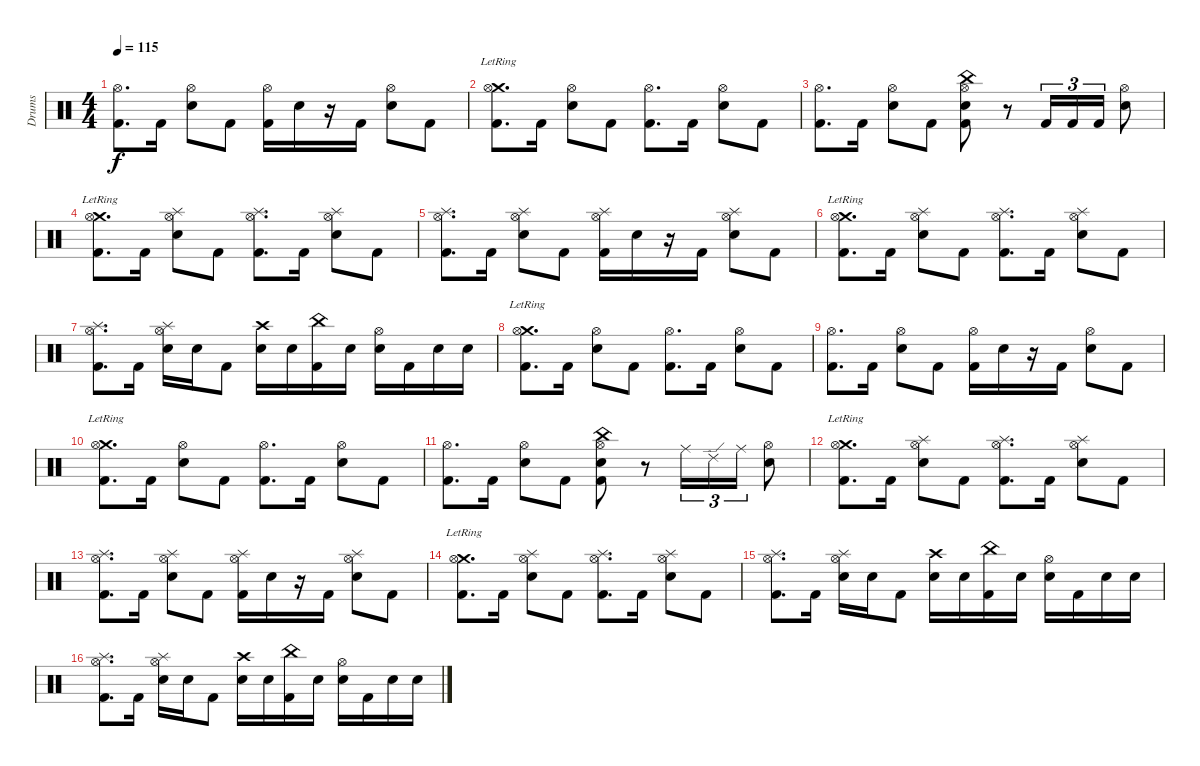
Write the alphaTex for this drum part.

\track ("Drums" "Drums") {instrument percussion}
\staff {score}
\articulation defaults
\ts (4 4)
\tempo 115
\clef neutral
\ks c
("Kick (hit) 2" "Hi-Hat (open)").8{d dy f} "Kick (hit) 2".16 ("Electric Snare (hit)" "Hi-Hat (open)").8 "Kick (hit) 2".8 ("Kick (hit) 2" "Hi-Hat (open)").16 "Electric Snare (hit)".16 r.16 "Kick (hit) 2".16 ("Electric Snare (hit)" "Hi-Hat (open)").8 "Kick (hit) 2".8 |
("Crash medium (hit)"{lr} "Kick (hit) 2" "Hi-Hat (open)").8{d} "Kick (hit) 2".16 ("Electric Snare (hit)" "Hi-Hat (open)").8 "Kick (hit) 2".8 ("Kick (hit) 2" "Hi-Hat (open)").8{d} "Kick (hit) 2".16 ("Electric Snare (hit)" "Hi-Hat (open)").8 "Kick (hit) 2".8 |
("Kick (hit) 2" "Hi-Hat (open)").8{d} "Kick (hit) 2".16 ("Electric Snare (hit)" "Hi-Hat (open)").8 "Kick (hit) 2".8 ("China (hit)" "Electric Snare (hit)" "Kick (hit) 2" "Hi-Hat (open)").8 r.8 "Kick (hit) 2".16{tu (3 2)} "Kick (hit) 2".16{tu (3 2)} "Kick (hit) 2".16{tu (3 2)} ("Electric Snare (hit)" "Hi-Hat (open)").8 |
("Crash medium (hit)"{lr} "Kick (hit) 2" "Hi-Hat (open)").8{d} "Kick (hit) 2".16 ("Splash (hit)" "Electric Snare (hit)" "Hi-Hat (open)").8 "Kick (hit) 2".8 ("Splash (hit)" "Kick (hit) 2" "Hi-Hat (open)").8{d} "Kick (hit) 2".16 ("Splash (hit)" "Electric Snare (hit)" "Hi-Hat (open)").8 "Kick (hit) 2".8 |
("Splash (hit)" "Kick (hit) 2" "Hi-Hat (open)").8{d} "Kick (hit) 2".16 ("Splash (hit)" "Electric Snare (hit)" "Hi-Hat (open)").8 "Kick (hit) 2".8 ("Splash (hit)" "Kick (hit) 2" "Hi-Hat (open)").16 "Electric Snare (hit)".16 r.16 "Kick (hit) 2".16 ("Splash (hit)" "Electric Snare (hit)" "Hi-Hat (open)").8 "Kick (hit) 2".8 |
("Crash medium (hit)"{lr} "Kick (hit) 2" "Hi-Hat (open)").8{d} "Kick (hit) 2".16 ("Splash (hit)" "Electric Snare (hit)" "Hi-Hat (open)").8 "Kick (hit) 2".8 ("Splash (hit)" "Kick (hit) 2" "Hi-Hat (open)").8{d} "Kick (hit) 2".16 ("Splash (hit)" "Electric Snare (hit)" "Hi-Hat (open)").8 "Kick (hit) 2".8 |
("Splash (hit)" "Kick (hit) 2" "Hi-Hat (open)").8{d} "Kick (hit) 2".16 ("Splash (hit)" "Electric Snare (hit)" "Hi-Hat (open)").16 "Electric Snare (hit)".16 "Kick (hit) 2".8 ("Crash high (hit)" "Electric Snare (hit)").16 "Electric Snare (hit)".16 ("China (hit)" "Kick (hit) 2").16 "Electric Snare (hit)".16 ("Electric Snare (hit)" "Hi-Hat (open)").16 "Kick (hit) 2".16 "Electric Snare (hit)".16 "Electric Snare (hit)".16 |
("Crash medium (hit)"{lr} "Kick (hit) 2" "Hi-Hat (open)").8{d} "Kick (hit) 2".16 ("Electric Snare (hit)" "Hi-Hat (open)").8 "Kick (hit) 2".8 ("Kick (hit) 2" "Hi-Hat (open)").8{d} "Kick (hit) 2".16 ("Electric Snare (hit)" "Hi-Hat (open)").8 "Kick (hit) 2".8 |
("Kick (hit) 2" "Hi-Hat (open)").8{d} "Kick (hit) 2".16 ("Electric Snare (hit)" "Hi-Hat (open)").8 "Kick (hit) 2".8 ("Kick (hit) 2" "Hi-Hat (open)").16 "Electric Snare (hit)".16 r.16 "Kick (hit) 2".16 ("Electric Snare (hit)" "Hi-Hat (open)").8 "Kick (hit) 2".8 |
("Crash medium (hit)"{lr} "Kick (hit) 2" "Hi-Hat (open)").8{d} "Kick (hit) 2".16 ("Electric Snare (hit)" "Hi-Hat (open)").8 "Kick (hit) 2".8 ("Kick (hit) 2" "Hi-Hat (open)").8{d} "Kick (hit) 2".16 ("Electric Snare (hit)" "Hi-Hat (open)").8 "Kick (hit) 2".8 |
("Kick (hit) 2" "Hi-Hat (open)").8{d} "Kick (hit) 2".16 ("Electric Snare (hit)" "Hi-Hat (open)").8 "Kick (hit) 2".8 ("China (hit)" "Electric Snare (hit)" "Kick (hit) 2" "Hi-Hat (open)").8 r.8 "Ride (middle)".16{tu (3 2)} "Ride (edge) 2".16{tu (3 2)} "Ride (middle)".16{tu (3 2)} ("Electric Snare (hit)" "Hi-Hat (open)").8 |
("Crash medium (hit)"{lr} "Kick (hit) 2" "Hi-Hat (open)").8{d} "Kick (hit) 2".16 ("Splash (hit)" "Electric Snare (hit)" "Hi-Hat (open)").8 "Kick (hit) 2".8 ("Splash (hit)" "Kick (hit) 2" "Hi-Hat (open)").8{d} "Kick (hit) 2".16 ("Splash (hit)" "Electric Snare (hit)" "Hi-Hat (open)").8 "Kick (hit) 2".8 |
("Splash (hit)" "Kick (hit) 2" "Hi-Hat (open)").8{d} "Kick (hit) 2".16 ("Splash (hit)" "Electric Snare (hit)" "Hi-Hat (open)").8 "Kick (hit) 2".8 ("Splash (hit)" "Kick (hit) 2" "Hi-Hat (open)").16 "Electric Snare (hit)".16 r.16 "Kick (hit) 2".16 ("Splash (hit)" "Electric Snare (hit)" "Hi-Hat (open)").8 "Kick (hit) 2".8 |
("Crash medium (hit)"{lr} "Kick (hit) 2" "Hi-Hat (open)").8{d} "Kick (hit) 2".16 ("Splash (hit)" "Electric Snare (hit)" "Hi-Hat (open)").8 "Kick (hit) 2".8 ("Splash (hit)" "Kick (hit) 2" "Hi-Hat (open)").8{d} "Kick (hit) 2".16 ("Splash (hit)" "Electric Snare (hit)" "Hi-Hat (open)").8 "Kick (hit) 2".8 |
("Splash (hit)" "Kick (hit) 2" "Hi-Hat (open)").8{d} "Kick (hit) 2".16 ("Splash (hit)" "Electric Snare (hit)" "Hi-Hat (open)").16 "Electric Snare (hit)".16 "Kick (hit) 2".8 ("Crash high (hit)" "Electric Snare (hit)").16 "Electric Snare (hit)".16 ("China (hit)" "Kick (hit) 2").16 "Electric Snare (hit)".16 ("Electric Snare (hit)" "Hi-Hat (open)").16 "Kick (hit) 2".16 "Electric Snare (hit)".16 "Electric Snare (hit)".16 |
("Splash (hit)" "Kick (hit) 2" "Hi-Hat (open)").8{d} "Kick (hit) 2".16 ("Splash (hit)" "Electric Snare (hit)" "Hi-Hat (open)").16 "Electric Snare (hit)".16 "Kick (hit) 2".8 ("Crash high (hit)" "Electric Snare (hit)").16 "Electric Snare (hit)".16 ("China (hit)" "Kick (hit) 2").16 "Electric Snare (hit)".16 ("Electric Snare (hit)" "Hi-Hat (open)").16 "Kick (hit) 2".16 "Electric Snare (hit)".16 "Electric Snare (hit)".16
